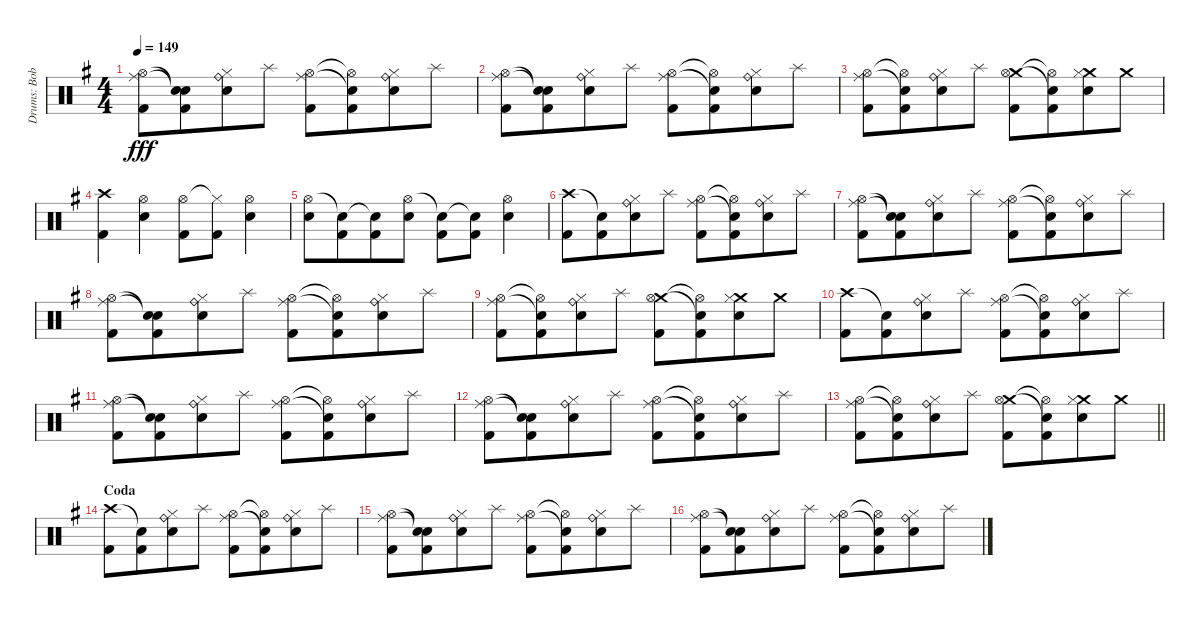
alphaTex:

\track ("Drums: Bobby" "Drums: Bob") {instrument percussion}
\staff {score}
\articulation defaults
\ts (4 4)
\tempo 149
\clef neutral
\ks g
("Ride (middle)" "Hi-Hat (open)" "Kick (hit) 2").8{dy fff} ("Snare (hit)"{t} "Snare (hit)"{t} "Kick (hit) 2").8{beam merge} ("Ride (bell)" "Hi-Hat (closed)" "Snare (hit) 2").8 "Splash (hit)".8 ("Ride (middle)" "Hi-Hat (open)" "Kick (hit) 2").8 ("Snare (hit)"{t} "Hi-Hat (open)"{t} "Kick (hit) 2").8{beam merge} ("Ride (bell)" "Hi-Hat (closed)" "Snare (hit) 2").8 "Splash (hit)".8 |
("Ride (middle)" "Hi-Hat (open)" "Kick (hit) 2").8 ("Snare (hit)"{t} "Snare (hit)"{t} "Kick (hit) 2").8{beam merge} ("Ride (bell)" "Hi-Hat (closed)" "Snare (hit) 2").8 "Splash (hit)".8 ("Ride (middle)" "Hi-Hat (open)" "Kick (hit) 2").8 ("Snare (hit)"{t} "Hi-Hat (open)"{t} "Kick (hit) 2").8{beam merge} ("Ride (bell)" "Hi-Hat (closed)" "Snare (hit) 2").8 "Splash (hit)".8 |
("Ride (middle)" "Hi-Hat (open)" "Kick (hit) 2").8 ("Snare (hit)"{t} "Hi-Hat (open)"{t} "Kick (hit) 2").8{beam merge} ("Ride (bell)" "Hi-Hat (closed)" "Snare (hit) 2").8 "Splash (hit)".8 ("Crash medium (hit)" "Hi-Hat (open)" "Kick (hit) 2").8 ("Snare (hit)"{t} "Hi-Hat (open)"{t} "Kick (hit) 2").8{beam merge} ("Crash medium (hit)" "Hi-Hat (closed)" "Snare (hit) 2").8 "Crash medium (hit)".8 |
("Crash high (hit)" "Kick (hit) 2").4{beam merge} ("Hi-Hat (open)" "Snare (hit) 2").4 ("Hi-Hat (open)" "Kick (hit) 2").8 ("Hi-Hat (closed)"{t} "Kick (hit) 2").8{beam merge} ("Hi-Hat (open)" "Snare (hit) 2").4 |
("Hi-Hat (open)" "Snare (hit) 2").8 ("Snare (hit)"{t} "Kick (hit) 2").8{beam merge} ("Snare (hit)"{t} "Kick (hit) 2").8{beam merge} ("Hi-Hat (open)" "Snare (hit) 2").8 ("Snare (hit)"{t} "Kick (hit) 2").8 ("Snare (hit)"{t} "Kick (hit) 2").8{beam merge} ("Hi-Hat (open)" "Snare (hit) 2").4 |
("Crash high (hit)" "Kick (hit) 2").8 ("Snare (hit)"{t} "Kick (hit) 2").8{beam merge} ("Ride (bell)" "Hi-Hat (closed)" "Snare (hit) 2").8 "Splash (hit)".8 ("Ride (middle)" "Hi-Hat (open)" "Kick (hit) 2").8 ("Snare (hit)"{t} "Hi-Hat (open)"{t} "Kick (hit) 2").8{beam merge} ("Ride (bell)" "Hi-Hat (closed)" "Snare (hit) 2").8 "Splash (hit)".8 |
("Ride (middle)" "Hi-Hat (open)" "Kick (hit) 2").8 ("Snare (hit)"{t} "Snare (hit)"{t} "Kick (hit) 2").8{beam merge} ("Ride (bell)" "Hi-Hat (closed)" "Snare (hit) 2").8 "Splash (hit)".8 ("Ride (middle)" "Hi-Hat (open)" "Kick (hit) 2").8 ("Snare (hit)"{t} "Hi-Hat (open)"{t} "Kick (hit) 2").8{beam merge} ("Ride (bell)" "Hi-Hat (closed)" "Snare (hit) 2").8 "Splash (hit)".8 |
("Ride (middle)" "Hi-Hat (open)" "Kick (hit) 2").8 ("Snare (hit)"{t} "Snare (hit)"{t} "Kick (hit) 2").8{beam merge} ("Ride (bell)" "Hi-Hat (closed)" "Snare (hit) 2").8 "Splash (hit)".8 ("Ride (middle)" "Hi-Hat (open)" "Kick (hit) 2").8 ("Snare (hit)"{t} "Hi-Hat (open)"{t} "Kick (hit) 2").8{beam merge} ("Ride (bell)" "Hi-Hat (closed)" "Snare (hit) 2").8 "Splash (hit)".8 |
("Ride (middle)" "Hi-Hat (open)" "Kick (hit) 2").8 ("Snare (hit)"{t} "Hi-Hat (open)"{t} "Kick (hit) 2").8{beam merge} ("Ride (bell)" "Hi-Hat (closed)" "Snare (hit) 2").8 "Splash (hit)".8 ("Crash medium (hit)" "Hi-Hat (open)" "Kick (hit) 2").8 ("Snare (hit)"{t} "Hi-Hat (open)"{t} "Kick (hit) 2").8{beam merge} ("Crash medium (hit)" "Hi-Hat (closed)" "Snare (hit) 2").8 "Crash medium (hit)".8 |
("Crash high (hit)" "Kick (hit) 2").8 ("Snare (hit)"{t} "Kick (hit) 2").8{beam merge} ("Ride (bell)" "Hi-Hat (closed)" "Snare (hit) 2").8 "Splash (hit)".8 ("Ride (middle)" "Hi-Hat (open)" "Kick (hit) 2").8 ("Snare (hit)"{t} "Hi-Hat (open)"{t} "Kick (hit) 2").8{beam merge} ("Ride (bell)" "Hi-Hat (closed)" "Snare (hit) 2").8 "Splash (hit)".8 |
("Ride (middle)" "Hi-Hat (open)" "Kick (hit) 2").8 ("Snare (hit)"{t} "Snare (hit)"{t} "Kick (hit) 2").8{beam merge} ("Ride (bell)" "Hi-Hat (closed)" "Snare (hit) 2").8 "Splash (hit)".8 ("Ride (middle)" "Hi-Hat (open)" "Kick (hit) 2").8 ("Snare (hit)"{t} "Hi-Hat (open)"{t} "Kick (hit) 2").8{beam merge} ("Ride (bell)" "Hi-Hat (closed)" "Snare (hit) 2").8 "Splash (hit)".8 |
("Ride (middle)" "Hi-Hat (open)" "Kick (hit) 2").8 ("Snare (hit)"{t} "Snare (hit)"{t} "Kick (hit) 2").8{beam merge} ("Ride (bell)" "Hi-Hat (closed)" "Snare (hit) 2").8 "Splash (hit)".8 ("Ride (middle)" "Hi-Hat (open)" "Kick (hit) 2").8 ("Snare (hit)"{t} "Hi-Hat (open)"{t} "Kick (hit) 2").8{beam merge} ("Ride (bell)" "Hi-Hat (closed)" "Snare (hit) 2").8 "Splash (hit)".8 |
\barLineRight lightlight
("Ride (middle)" "Hi-Hat (open)" "Kick (hit) 2").8 ("Snare (hit)"{t} "Hi-Hat (open)"{t} "Kick (hit) 2").8{beam merge} ("Ride (bell)" "Hi-Hat (closed)" "Snare (hit) 2").8 "Splash (hit)".8 ("Crash medium (hit)" "Hi-Hat (open)" "Kick (hit) 2").8 ("Snare (hit)"{t} "Hi-Hat (open)"{t} "Kick (hit) 2").8{beam merge} ("Crash medium (hit)" "Hi-Hat (closed)" "Snare (hit) 2").8 "Crash medium (hit)".8 |
\section ("" "Coda")
("Crash high (hit)" "Kick (hit) 2").8 ("Snare (hit)"{t} "Kick (hit) 2").8{beam merge} ("Ride (bell)" "Hi-Hat (closed)" "Snare (hit) 2").8 "Splash (hit)".8 ("Ride (middle)" "Hi-Hat (open)" "Kick (hit) 2").8 ("Snare (hit)"{t} "Hi-Hat (open)"{t} "Kick (hit) 2").8{beam merge} ("Ride (bell)" "Hi-Hat (closed)" "Snare (hit) 2").8 "Splash (hit)".8 |
("Ride (middle)" "Hi-Hat (open)" "Kick (hit) 2").8 ("Snare (hit)"{t} "Snare (hit)"{t} "Kick (hit) 2").8{beam merge} ("Ride (bell)" "Hi-Hat (closed)" "Snare (hit) 2").8 "Splash (hit)".8 ("Ride (middle)" "Hi-Hat (open)" "Kick (hit) 2").8 ("Snare (hit)"{t} "Hi-Hat (open)"{t} "Kick (hit) 2").8{beam merge} ("Ride (bell)" "Hi-Hat (closed)" "Snare (hit) 2").8 "Splash (hit)".8 |
("Ride (middle)" "Hi-Hat (open)" "Kick (hit) 2").8 ("Snare (hit)"{t} "Snare (hit)"{t} "Kick (hit) 2").8{beam merge} ("Ride (bell)" "Hi-Hat (closed)" "Snare (hit) 2").8 "Splash (hit)".8 ("Ride (middle)" "Hi-Hat (open)" "Kick (hit) 2").8 ("Snare (hit)"{t} "Hi-Hat (open)"{t} "Kick (hit) 2").8{beam merge} ("Ride (bell)" "Hi-Hat (closed)" "Snare (hit) 2").8 "Splash (hit)".8
